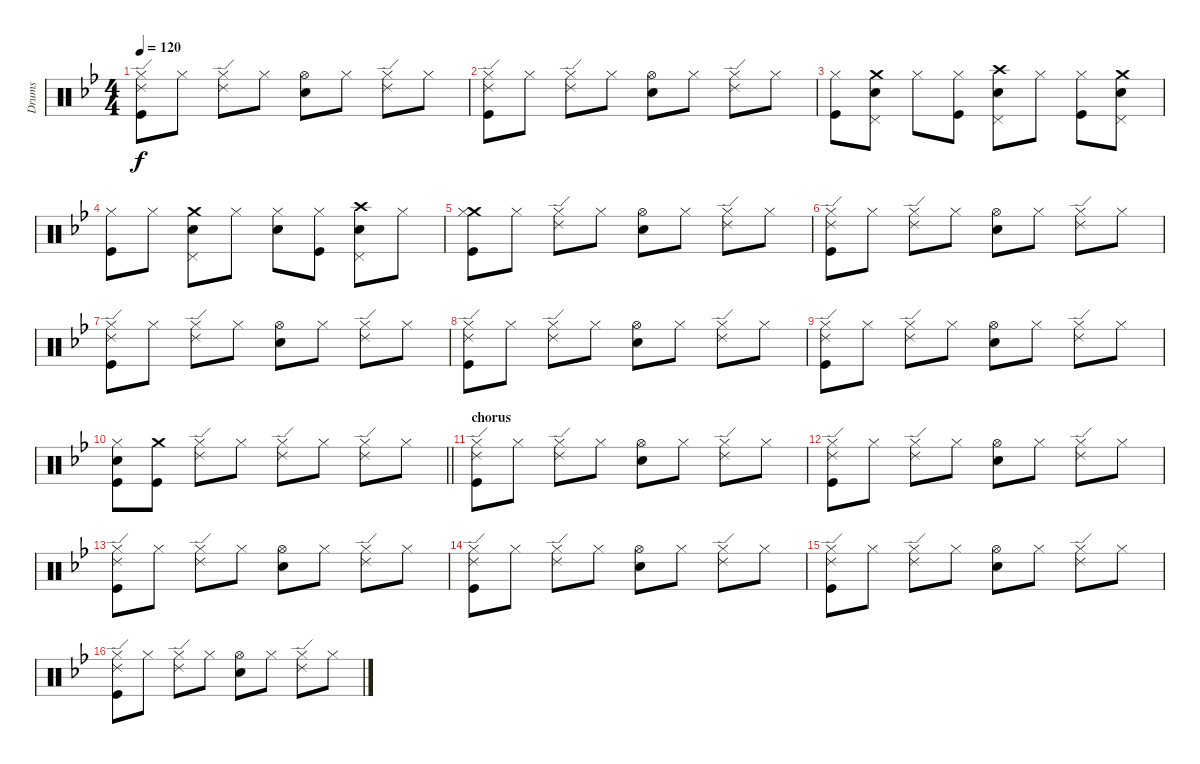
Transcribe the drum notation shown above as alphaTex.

\track ("Drums" "Drums") {instrument percussion}
\staff {score}
\articulation defaults
\ts (4 4)
\tempo 120
\clef neutral
\ks gminor
("Hi-Hat (closed)" "Ride (edge) 2" "Kick (hit)").8{dy f} "Hi-Hat (closed)".8 ("Hi-Hat (closed)" "Ride (edge) 2").8 "Hi-Hat (closed)".8 ("Hi-Hat (open)" "Electric Snare (hit)").8 "Hi-Hat (closed)".8 ("Hi-Hat (closed)" "Ride (edge) 2").8 "Hi-Hat (closed)".8 |
("Hi-Hat (closed)" "Ride (edge) 2" "Kick (hit)").8 "Hi-Hat (closed)".8 ("Hi-Hat (closed)" "Ride (edge) 2").8 "Hi-Hat (closed)".8 ("Hi-Hat (open)" "Electric Snare (hit)").8 "Hi-Hat (closed)".8 ("Hi-Hat (closed)" "Ride (edge) 2").8 "Hi-Hat (closed)".8 |
("Hi-Hat (closed)" "Kick (hit)").8 ("Crash medium (hit)" "Pedal Hi-Hat (hit)" "Electric Snare (hit)").8 "Hi-Hat (closed)".8 ("Hi-Hat (closed)" "Kick (hit)").8 ("Crash high (hit)" "Pedal Hi-Hat (hit)" "Electric Snare (hit)").8 "Hi-Hat (closed)".8 ("Hi-Hat (closed)" "Kick (hit)").8 ("Crash medium (hit)" "Pedal Hi-Hat (hit)" "Electric Snare (hit)").8 |
("Hi-Hat (closed)" "Kick (hit)").8 "Hi-Hat (closed)".8 ("Crash medium (hit)" "Pedal Hi-Hat (hit)" "Electric Snare (hit)").8 "Hi-Hat (closed)".8 ("Hi-Hat (closed)" "Electric Snare (hit)").8 ("Hi-Hat (closed)" "Kick (hit)").8 ("Crash high (hit)" "Pedal Hi-Hat (hit)" "Electric Snare (hit)").8 "Hi-Hat (closed)".8 |
("Crash medium (hit)" "Hi-Hat (closed)" "Kick (hit)").8 "Hi-Hat (closed)".8 ("Hi-Hat (closed)" "Ride (edge) 2").8 "Hi-Hat (closed)".8 ("Hi-Hat (open)" "Electric Snare (hit)").8 "Hi-Hat (closed)".8 ("Hi-Hat (closed)" "Ride (edge) 2").8 "Hi-Hat (closed)".8 |
("Hi-Hat (closed)" "Ride (edge) 2" "Kick (hit)").8 "Hi-Hat (closed)".8 ("Hi-Hat (closed)" "Ride (edge) 2").8 "Hi-Hat (closed)".8 ("Hi-Hat (open)" "Electric Snare (hit)").8 "Hi-Hat (closed)".8 ("Hi-Hat (closed)" "Ride (edge) 2").8 "Hi-Hat (closed)".8 |
("Hi-Hat (closed)" "Ride (edge) 2" "Kick (hit)").8 "Hi-Hat (closed)".8 ("Hi-Hat (closed)" "Ride (edge) 2").8 "Hi-Hat (closed)".8 ("Hi-Hat (open)" "Electric Snare (hit)").8 "Hi-Hat (closed)".8 ("Hi-Hat (closed)" "Ride (edge) 2").8 "Hi-Hat (closed)".8 |
("Hi-Hat (closed)" "Ride (edge) 2" "Kick (hit)").8 "Hi-Hat (closed)".8 ("Hi-Hat (closed)" "Ride (edge) 2").8 "Hi-Hat (closed)".8 ("Hi-Hat (open)" "Electric Snare (hit)").8 "Hi-Hat (closed)".8 ("Hi-Hat (closed)" "Ride (edge) 2").8 "Hi-Hat (closed)".8 |
("Hi-Hat (closed)" "Ride (edge) 2" "Kick (hit)").8 "Hi-Hat (closed)".8 ("Hi-Hat (closed)" "Ride (edge) 2").8 "Hi-Hat (closed)".8 ("Hi-Hat (open)" "Electric Snare (hit)").8 "Hi-Hat (closed)".8 ("Hi-Hat (closed)" "Ride (edge) 2").8 "Hi-Hat (closed)".8 |
\barLineRight lightlight
("Hi-Hat (closed)" "Electric Snare (hit)" "Kick (hit)").8 ("Crash medium (hit)" "Kick (hit)").8 ("Hi-Hat (closed)" "Ride (edge) 2").8 "Hi-Hat (closed)".8 ("Hi-Hat (closed)" "Ride (edge) 2").8 "Hi-Hat (closed)".8 ("Hi-Hat (closed)" "Ride (edge) 2").8 "Hi-Hat (closed)".8 |
\section ("" "chorus ")
("Hi-Hat (closed)" "Ride (edge) 2" "Kick (hit)").8 "Hi-Hat (closed)".8 ("Hi-Hat (closed)" "Ride (edge) 2").8 "Hi-Hat (closed)".8 ("Hi-Hat (open)" "Electric Snare (hit)").8 "Hi-Hat (closed)".8 ("Hi-Hat (closed)" "Ride (edge) 2").8 "Hi-Hat (closed)".8 |
("Hi-Hat (closed)" "Ride (edge) 2" "Kick (hit)").8 "Hi-Hat (closed)".8 ("Hi-Hat (closed)" "Ride (edge) 2").8 "Hi-Hat (closed)".8 ("Hi-Hat (open)" "Electric Snare (hit)").8 "Hi-Hat (closed)".8 ("Hi-Hat (closed)" "Ride (edge) 2").8 "Hi-Hat (closed)".8 |
("Hi-Hat (closed)" "Ride (edge) 2" "Kick (hit)").8 "Hi-Hat (closed)".8 ("Hi-Hat (closed)" "Ride (edge) 2").8 "Hi-Hat (closed)".8 ("Hi-Hat (open)" "Electric Snare (hit)").8 "Hi-Hat (closed)".8 ("Hi-Hat (closed)" "Ride (edge) 2").8 "Hi-Hat (closed)".8 |
("Hi-Hat (closed)" "Ride (edge) 2" "Kick (hit)").8 "Hi-Hat (closed)".8 ("Hi-Hat (closed)" "Ride (edge) 2").8 "Hi-Hat (closed)".8 ("Hi-Hat (open)" "Electric Snare (hit)").8 "Hi-Hat (closed)".8 ("Hi-Hat (closed)" "Ride (edge) 2").8 "Hi-Hat (closed)".8 |
("Hi-Hat (closed)" "Ride (edge) 2" "Kick (hit)").8 "Hi-Hat (closed)".8 ("Hi-Hat (closed)" "Ride (edge) 2").8 "Hi-Hat (closed)".8 ("Hi-Hat (open)" "Electric Snare (hit)").8 "Hi-Hat (closed)".8 ("Hi-Hat (closed)" "Ride (edge) 2").8 "Hi-Hat (closed)".8 |
("Hi-Hat (closed)" "Ride (edge) 2" "Kick (hit)").8 "Hi-Hat (closed)".8 ("Hi-Hat (closed)" "Ride (edge) 2").8 "Hi-Hat (closed)".8 ("Hi-Hat (open)" "Electric Snare (hit)").8 "Hi-Hat (closed)".8 ("Hi-Hat (closed)" "Ride (edge) 2").8 "Hi-Hat (closed)".8
